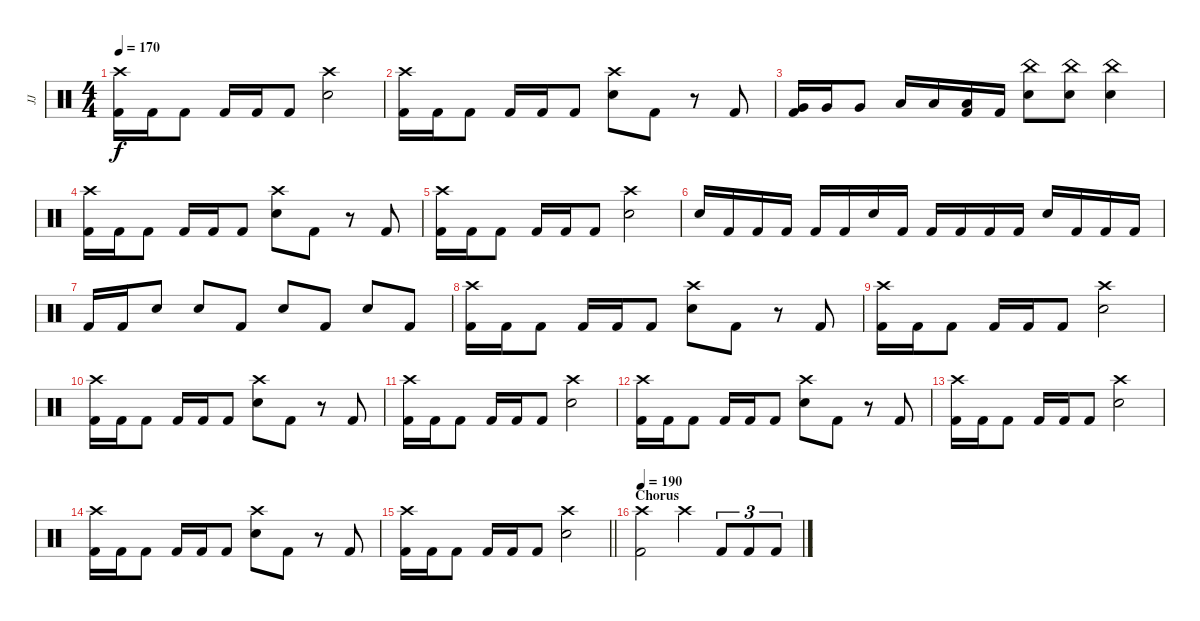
\track ("JJ" "JJ") {instrument percussion}
\staff {score}
\articulation defaults
\ts (4 4)
\tempo 170
\clef neutral
\ks c
("Crash high (hit)" "Kick (hit) 2").16{dy f} "Kick (hit) 2".16 "Kick (hit) 2".8 "Kick (hit) 2".16 "Kick (hit) 2".16 "Kick (hit) 2".8 ("Crash high (hit)" "Electric Snare (hit)").2 |
("Crash high (hit)" "Kick (hit) 2").16 "Kick (hit) 2".16 "Kick (hit) 2".8 "Kick (hit) 2".16 "Kick (hit) 2".16 "Kick (hit) 2".8 ("Crash high (hit)" "Electric Snare (hit)").8 "Kick (hit) 2".8 r.8 "Kick (hit) 2".8 |
("Very Low Tom (hit)" "Kick (hit) 2").16 "Very Low Tom (hit)".16 "Very Low Tom (hit)".8 "Low Floor Tom (hit)".16 "Low Floor Tom (hit)".16 ("Low Floor Tom (hit)" "Kick (hit) 2").16 "Kick (hit) 2".16 ("China (hit)" "Electric Snare (hit)").8 ("China (hit)" "Electric Snare (hit)").8 ("China (hit)" "Electric Snare (hit)").4 |
("Crash high (hit)" "Kick (hit) 2").16 "Kick (hit) 2".16 "Kick (hit) 2".8 "Kick (hit) 2".16 "Kick (hit) 2".16 "Kick (hit) 2".8 ("Crash high (hit)" "Electric Snare (hit)").8 "Kick (hit) 2".8 r.8 "Kick (hit) 2".8 |
("Crash high (hit)" "Kick (hit) 2").16 "Kick (hit) 2".16 "Kick (hit) 2".8 "Kick (hit) 2".16 "Kick (hit) 2".16 "Kick (hit) 2".8 ("Crash high (hit)" "Electric Snare (hit)").2 |
"Electric Snare (hit)".16 "Kick (hit) 2".16 "Kick (hit) 2".16 "Kick (hit) 2".16 "Kick (hit) 2".16 "Kick (hit) 2".16 "Electric Snare (hit)".16 "Kick (hit) 2".16 "Kick (hit) 2".16 "Kick (hit) 2".16 "Kick (hit) 2".16 "Kick (hit) 2".16 "Electric Snare (hit)".16 "Kick (hit) 2".16 "Kick (hit) 2".16 "Kick (hit) 2".16 |
"Kick (hit) 2".16 "Kick (hit) 2".16 "Electric Snare (hit)".8 "Electric Snare (hit)".8 "Kick (hit) 2".8 "Electric Snare (hit)".8 "Kick (hit) 2".8 "Electric Snare (hit)".8 "Kick (hit) 2".8 |
("Crash high (hit)" "Kick (hit) 2").16 "Kick (hit) 2".16 "Kick (hit) 2".8 "Kick (hit) 2".16 "Kick (hit) 2".16 "Kick (hit) 2".8 ("Crash high (hit)" "Electric Snare (hit)").8 "Kick (hit) 2".8 r.8 "Kick (hit) 2".8 |
("Crash high (hit)" "Kick (hit) 2").16 "Kick (hit) 2".16 "Kick (hit) 2".8 "Kick (hit) 2".16 "Kick (hit) 2".16 "Kick (hit) 2".8 ("Crash high (hit)" "Electric Snare (hit)").2 |
("Crash high (hit)" "Kick (hit) 2").16 "Kick (hit) 2".16 "Kick (hit) 2".8 "Kick (hit) 2".16 "Kick (hit) 2".16 "Kick (hit) 2".8 ("Crash high (hit)" "Electric Snare (hit)").8 "Kick (hit) 2".8 r.8 "Kick (hit) 2".8 |
("Crash high (hit)" "Kick (hit) 2").16 "Kick (hit) 2".16 "Kick (hit) 2".8 "Kick (hit) 2".16 "Kick (hit) 2".16 "Kick (hit) 2".8 ("Crash high (hit)" "Electric Snare (hit)").2 |
("Crash high (hit)" "Kick (hit) 2").16 "Kick (hit) 2".16 "Kick (hit) 2".8 "Kick (hit) 2".16 "Kick (hit) 2".16 "Kick (hit) 2".8 ("Crash high (hit)" "Electric Snare (hit)").8 "Kick (hit) 2".8 r.8 "Kick (hit) 2".8 |
("Crash high (hit)" "Kick (hit) 2").16 "Kick (hit) 2".16 "Kick (hit) 2".8 "Kick (hit) 2".16 "Kick (hit) 2".16 "Kick (hit) 2".8 ("Crash high (hit)" "Electric Snare (hit)").2 |
("Crash high (hit)" "Kick (hit) 2").16 "Kick (hit) 2".16 "Kick (hit) 2".8 "Kick (hit) 2".16 "Kick (hit) 2".16 "Kick (hit) 2".8 ("Crash high (hit)" "Electric Snare (hit)").8 "Kick (hit) 2".8 r.8 "Kick (hit) 2".8 |
\barLineRight lightlight
("Crash high (hit)" "Kick (hit) 2").16 "Kick (hit) 2".16 "Kick (hit) 2".8 "Kick (hit) 2".16 "Kick (hit) 2".16 "Kick (hit) 2".8 ("Crash high (hit)" "Electric Snare (hit)").2 |
\section ("" "Chorus")
\tempo 190
("Crash high (hit)" "Kick (hit) 2").2 "Crash high (hit)".4 "Kick (hit) 2".8{tu (3 2)} "Kick (hit) 2".8{tu (3 2)} "Kick (hit) 2".8{tu (3 2)}
